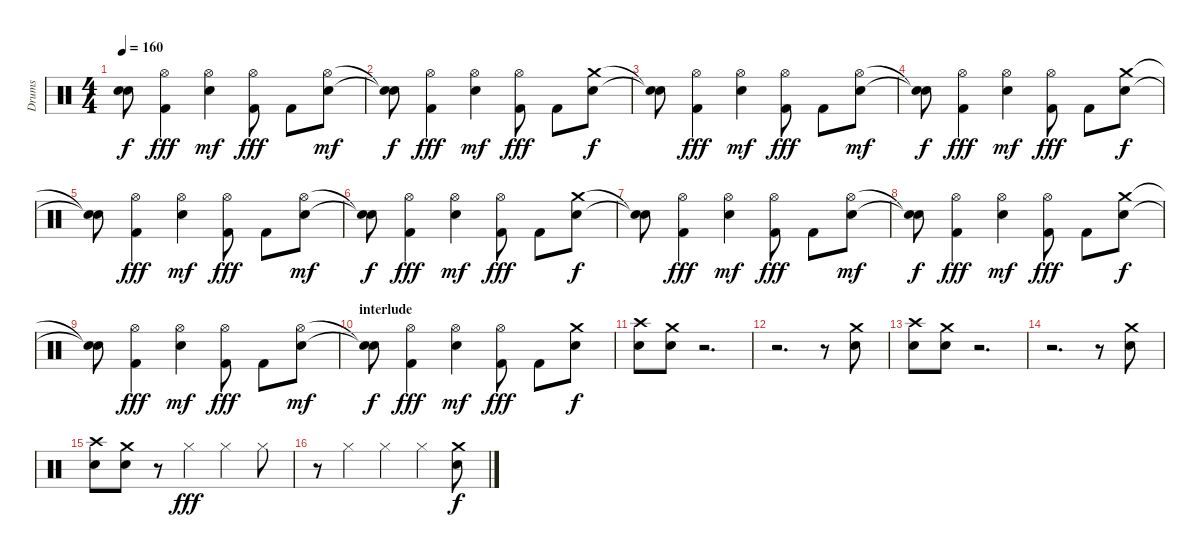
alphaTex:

\track ("Drums" "Drums") {instrument percussion}
\staff {score}
\articulation defaults
\ts (4 4)
\tempo 160
\clef neutral
\ks c
("Snare (hit)"{t} "Snare (hit)"{t}).8{dy f} ("Hi-Hat (open)" "Kick (hit) 2").4{dy fff} ("Hi-Hat (open)" "Electric Snare (hit)").4{dy mf} ("Hi-Hat (open)" "Kick (hit) 2").8{dy fff} "Kick (hit) 2".8 ("Hi-Hat (open)" "Electric Snare (hit)").8{dy mf} |
("Snare (hit)"{t} "Snare (hit)"{t}).8{dy f} ("Hi-Hat (open)" "Kick (hit) 2").4{dy fff} ("Hi-Hat (open)" "Electric Snare (hit)").4{dy mf} ("Hi-Hat (open)" "Kick (hit) 2").8{dy fff} "Kick (hit) 2".8 ("Crash medium (hit)" "Electric Snare (hit)").8{dy f} |
("Snare (hit)"{t} "Snare (hit)"{t}).8 ("Hi-Hat (open)" "Kick (hit) 2").4{dy fff} ("Hi-Hat (open)" "Electric Snare (hit)").4{dy mf} ("Hi-Hat (open)" "Kick (hit) 2").8{dy fff} "Kick (hit) 2".8 ("Hi-Hat (open)" "Electric Snare (hit)").8{dy mf} |
("Snare (hit)"{t} "Snare (hit)"{t}).8{dy f} ("Hi-Hat (open)" "Kick (hit) 2").4{dy fff} ("Hi-Hat (open)" "Electric Snare (hit)").4{dy mf} ("Hi-Hat (open)" "Kick (hit) 2").8{dy fff} "Kick (hit) 2".8 ("Crash medium (hit)" "Electric Snare (hit)").8{dy f} |
("Snare (hit)"{t} "Snare (hit)"{t}).8 ("Hi-Hat (open)" "Kick (hit) 2").4{dy fff} ("Hi-Hat (open)" "Electric Snare (hit)").4{dy mf} ("Hi-Hat (open)" "Kick (hit) 2").8{dy fff} "Kick (hit) 2".8 ("Hi-Hat (open)" "Electric Snare (hit)").8{dy mf} |
("Snare (hit)"{t} "Snare (hit)"{t}).8{dy f} ("Hi-Hat (open)" "Kick (hit) 2").4{dy fff} ("Hi-Hat (open)" "Electric Snare (hit)").4{dy mf} ("Hi-Hat (open)" "Kick (hit) 2").8{dy fff} "Kick (hit) 2".8 ("Crash medium (hit)" "Electric Snare (hit)").8{dy f} |
("Snare (hit)"{t} "Snare (hit)"{t}).8 ("Hi-Hat (open)" "Kick (hit) 2").4{dy fff} ("Hi-Hat (open)" "Electric Snare (hit)").4{dy mf} ("Hi-Hat (open)" "Kick (hit) 2").8{dy fff} "Kick (hit) 2".8 ("Hi-Hat (open)" "Electric Snare (hit)").8{dy mf} |
("Snare (hit)"{t} "Snare (hit)"{t}).8{dy f} ("Hi-Hat (open)" "Kick (hit) 2").4{dy fff} ("Hi-Hat (open)" "Electric Snare (hit)").4{dy mf} ("Hi-Hat (open)" "Kick (hit) 2").8{dy fff} "Kick (hit) 2".8 ("Crash medium (hit)" "Electric Snare (hit)").8{dy f} |
("Snare (hit)"{t} "Snare (hit)"{t}).8 ("Hi-Hat (open)" "Kick (hit) 2").4{dy fff} ("Hi-Hat (open)" "Electric Snare (hit)").4{dy mf} ("Hi-Hat (open)" "Kick (hit) 2").8{dy fff} "Kick (hit) 2".8 ("Hi-Hat (open)" "Electric Snare (hit)").8{dy mf} |
\section ("" "interlude")
("Snare (hit)"{t} "Snare (hit)"{t}).8{dy f} ("Hi-Hat (open)" "Kick (hit) 2").4{dy fff} ("Hi-Hat (open)" "Electric Snare (hit)").4{dy mf} ("Hi-Hat (open)" "Kick (hit) 2").8{dy fff} "Kick (hit) 2".8 ("Crash medium (hit)" "Electric Snare (hit)").8{dy f} |
("Crash high (hit)" "Electric Snare (hit)").8 ("Crash medium (hit)" "Electric Snare (hit)").8 r.2{d} |
r.2{d} r.8 ("Crash medium (hit)" "Electric Snare (hit)").8 |
("Crash high (hit)" "Electric Snare (hit)").8 ("Crash medium (hit)" "Electric Snare (hit)").8 r.2{d} |
r.2{d} r.8 ("Crash medium (hit)" "Electric Snare (hit)").8 |
("Crash high (hit)" "Electric Snare (hit)").8 ("Crash medium (hit)" "Electric Snare (hit)").8 r.8 "Hi-Hat (closed)".4{dy fff} "Hi-Hat (closed)".4 "Hi-Hat (closed)".8 |
r.8 "Hi-Hat (closed)".4 "Hi-Hat (closed)".4 "Hi-Hat (closed)".4 ("Crash medium (hit)" "Electric Snare (hit)").8{dy f}
